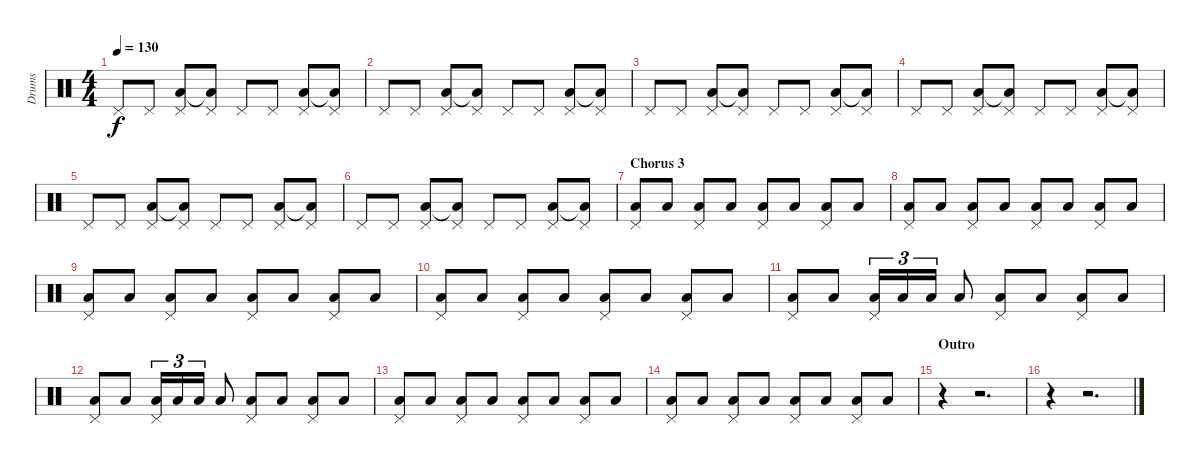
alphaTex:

\track ("Drums" "Drums") {instrument percussion}
\staff {score}
\articulation defaults
\ts (4 4)
\tempo 130
\clef neutral
\ks c "Pedal Hi-Hat (hit)".8{dy f} "Pedal Hi-Hat (hit)".8
("Pedal Hi-Hat (hit)" "Low Floor Tom (hit)").8 ("Pedal Hi-Hat (hit)" "Low Floor Tom (hit)"{t}).8 "Pedal Hi-Hat (hit)".8 "Pedal Hi-Hat (hit)".8 ("Pedal Hi-Hat (hit)" "Low Floor Tom (hit)").8 ("Pedal Hi-Hat (hit)" "Low Floor Tom (hit)"{t}).8 |
"Pedal Hi-Hat (hit)".8 "Pedal Hi-Hat (hit)".8 ("Pedal Hi-Hat (hit)" "Low Floor Tom (hit)").8 ("Pedal Hi-Hat (hit)" "Low Floor Tom (hit)"{t}).8 "Pedal Hi-Hat (hit)".8 "Pedal Hi-Hat (hit)".8 ("Pedal Hi-Hat (hit)" "Low Floor Tom (hit)").8 ("Pedal Hi-Hat (hit)" "Low Floor Tom (hit)"{t}).8 |
"Pedal Hi-Hat (hit)".8 "Pedal Hi-Hat (hit)".8 ("Pedal Hi-Hat (hit)" "Low Floor Tom (hit)").8 ("Pedal Hi-Hat (hit)" "Low Floor Tom (hit)"{t}).8 "Pedal Hi-Hat (hit)".8 "Pedal Hi-Hat (hit)".8 ("Pedal Hi-Hat (hit)" "Low Floor Tom (hit)").8 ("Pedal Hi-Hat (hit)" "Low Floor Tom (hit)"{t}).8 |
"Pedal Hi-Hat (hit)".8 "Pedal Hi-Hat (hit)".8 ("Pedal Hi-Hat (hit)" "Low Floor Tom (hit)").8 ("Pedal Hi-Hat (hit)" "Low Floor Tom (hit)"{t}).8 "Pedal Hi-Hat (hit)".8 "Pedal Hi-Hat (hit)".8 ("Pedal Hi-Hat (hit)" "Low Floor Tom (hit)").8 ("Pedal Hi-Hat (hit)" "Low Floor Tom (hit)"{t}).8 |
"Pedal Hi-Hat (hit)".8 "Pedal Hi-Hat (hit)".8 ("Pedal Hi-Hat (hit)" "Low Floor Tom (hit)").8 ("Pedal Hi-Hat (hit)" "Low Floor Tom (hit)"{t}).8 "Pedal Hi-Hat (hit)".8 "Pedal Hi-Hat (hit)".8 ("Pedal Hi-Hat (hit)" "Low Floor Tom (hit)").8 ("Pedal Hi-Hat (hit)" "Low Floor Tom (hit)"{t}).8 |
"Pedal Hi-Hat (hit)".8 "Pedal Hi-Hat (hit)".8 ("Pedal Hi-Hat (hit)" "Low Floor Tom (hit)").8 ("Pedal Hi-Hat (hit)" "Low Floor Tom (hit)"{t}).8 "Pedal Hi-Hat (hit)".8 "Pedal Hi-Hat (hit)".8 ("Pedal Hi-Hat (hit)" "Low Floor Tom (hit)").8 ("Pedal Hi-Hat (hit)" "Low Floor Tom (hit)"{t}).8 |
\section ("" "Chorus 3")
("Pedal Hi-Hat (hit)" "Low Floor Tom (hit)").8 "Low Floor Tom (hit)".8 ("Pedal Hi-Hat (hit)" "Low Floor Tom (hit)").8 "Low Floor Tom (hit)".8 ("Pedal Hi-Hat (hit)" "Low Floor Tom (hit)").8 "Low Floor Tom (hit)".8 ("Pedal Hi-Hat (hit)" "Low Floor Tom (hit)").8 "Low Floor Tom (hit)".8 |
("Pedal Hi-Hat (hit)" "Low Floor Tom (hit)").8 "Low Floor Tom (hit)".8 ("Pedal Hi-Hat (hit)" "Low Floor Tom (hit)").8 "Low Floor Tom (hit)".8 ("Pedal Hi-Hat (hit)" "Low Floor Tom (hit)").8 "Low Floor Tom (hit)".8 ("Pedal Hi-Hat (hit)" "Low Floor Tom (hit)").8 "Low Floor Tom (hit)".8 |
("Pedal Hi-Hat (hit)" "Low Floor Tom (hit)").8 "Low Floor Tom (hit)".8 ("Pedal Hi-Hat (hit)" "Low Floor Tom (hit)").8 "Low Floor Tom (hit)".8 ("Pedal Hi-Hat (hit)" "Low Floor Tom (hit)").8 "Low Floor Tom (hit)".8 ("Pedal Hi-Hat (hit)" "Low Floor Tom (hit)").8 "Low Floor Tom (hit)".8 |
("Pedal Hi-Hat (hit)" "Low Floor Tom (hit)").8 "Low Floor Tom (hit)".8 ("Pedal Hi-Hat (hit)" "Low Floor Tom (hit)").8 "Low Floor Tom (hit)".8 ("Pedal Hi-Hat (hit)" "Low Floor Tom (hit)").8 "Low Floor Tom (hit)".8 ("Pedal Hi-Hat (hit)" "Low Floor Tom (hit)").8 "Low Floor Tom (hit)".8 |
("Pedal Hi-Hat (hit)" "Low Floor Tom (hit)").8 "Low Floor Tom (hit)".8 ("Pedal Hi-Hat (hit)" "Low Floor Tom (hit)").16{tu (3 2)} "Low Floor Tom (hit)".16{tu (3 2)} "Low Floor Tom (hit)".16{tu (3 2)} "Low Floor Tom (hit)".8 ("Pedal Hi-Hat (hit)" "Low Floor Tom (hit)").8 "Low Floor Tom (hit)".8 ("Pedal Hi-Hat (hit)" "Low Floor Tom (hit)").8 "Low Floor Tom (hit)".8 |
("Pedal Hi-Hat (hit)" "Low Floor Tom (hit)").8 "Low Floor Tom (hit)".8 ("Pedal Hi-Hat (hit)" "Low Floor Tom (hit)").16{tu (3 2)} "Low Floor Tom (hit)".16{tu (3 2)} "Low Floor Tom (hit)".16{tu (3 2)} "Low Floor Tom (hit)".8 ("Pedal Hi-Hat (hit)" "Low Floor Tom (hit)").8 "Low Floor Tom (hit)".8 ("Pedal Hi-Hat (hit)" "Low Floor Tom (hit)").8 "Low Floor Tom (hit)".8 |
("Pedal Hi-Hat (hit)" "Low Floor Tom (hit)").8 "Low Floor Tom (hit)".8 ("Pedal Hi-Hat (hit)" "Low Floor Tom (hit)").8 "Low Floor Tom (hit)".8 ("Pedal Hi-Hat (hit)" "Low Floor Tom (hit)").8 "Low Floor Tom (hit)".8 ("Pedal Hi-Hat (hit)" "Low Floor Tom (hit)").8 "Low Floor Tom (hit)".8 |
("Pedal Hi-Hat (hit)" "Low Floor Tom (hit)").8 "Low Floor Tom (hit)".8 ("Pedal Hi-Hat (hit)" "Low Floor Tom (hit)").8 "Low Floor Tom (hit)".8 ("Pedal Hi-Hat (hit)" "Low Floor Tom (hit)").8 "Low Floor Tom (hit)".8 ("Pedal Hi-Hat (hit)" "Low Floor Tom (hit)").8 "Low Floor Tom (hit)".8 |
\section ("" "Outro")
r.4 r.2{d} |
r.4 r.2{d}
